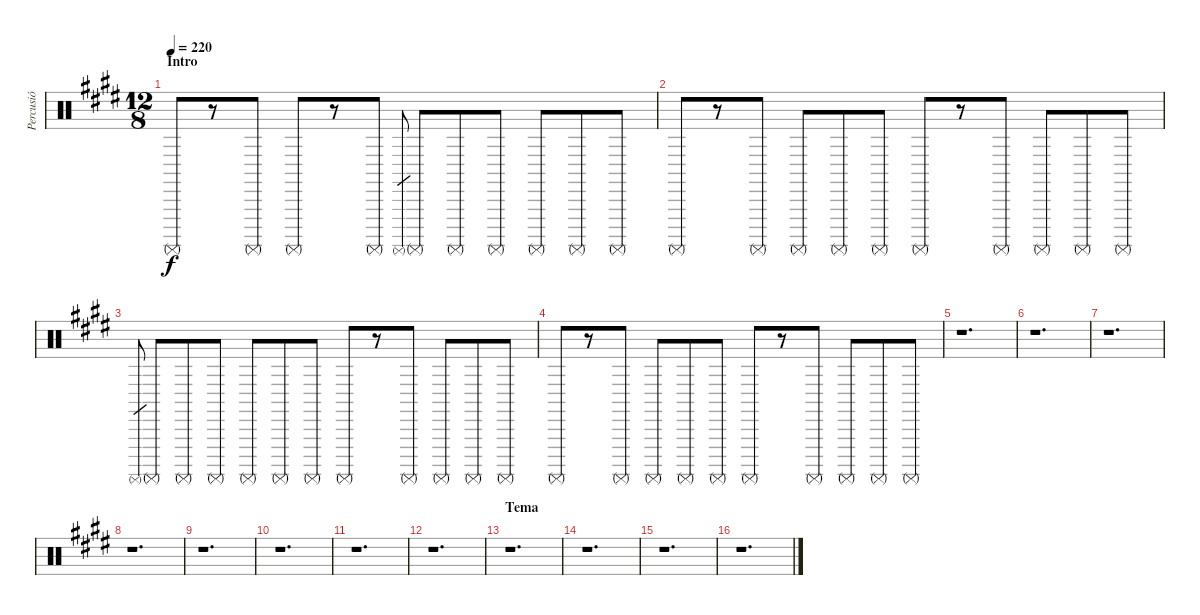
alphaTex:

\track ("Percusió" "Percusió") {instrument percussion}
\staff {score}
\articulation defaults
\ts (12 8)
\section ("" "Intro")
\tempo 220
\clef neutral
\ks e "Surdo (mute)".8{dy f}
r.8 "Surdo (mute)".8 "Surdo (mute)".8 r.8 "Surdo (mute)".8 "Surdo (mute)".8{gr} "Surdo (mute)".8 "Surdo (mute)".8 "Surdo (mute)".8 "Surdo (mute)".8 "Surdo (mute)".8 "Surdo (mute)".8 |
"Surdo (mute)".8 r.8 "Surdo (mute)".8 "Surdo (mute)".8 "Surdo (mute)".8 "Surdo (mute)".8 "Surdo (mute)".8 r.8 "Surdo (mute)".8 "Surdo (mute)".8 "Surdo (mute)".8 "Surdo (mute)".8 |
"Surdo (mute)".8{gr} "Surdo (mute)".8 "Surdo (mute)".8 "Surdo (mute)".8 "Surdo (mute)".8 "Surdo (mute)".8 "Surdo (mute)".8 "Surdo (mute)".8 r.8 "Surdo (mute)".8 "Surdo (mute)".8 "Surdo (mute)".8 "Surdo (mute)".8 |
"Surdo (mute)".8 r.8 "Surdo (mute)".8 "Surdo (mute)".8 "Surdo (mute)".8 "Surdo (mute)".8 "Surdo (mute)".8 r.8 "Surdo (mute)".8 "Surdo (mute)".8 "Surdo (mute)".8 "Surdo (mute)".8 |
r.1{d} |
r.1{d} |
r.1{d} |
r.1{d} |
r.1{d} |
r.1{d} |
r.1{d} |
r.1{d} |
\section ("" "Tema")
r.1{d} |
r.1{d} |
r.1{d} |
r.1{d}
